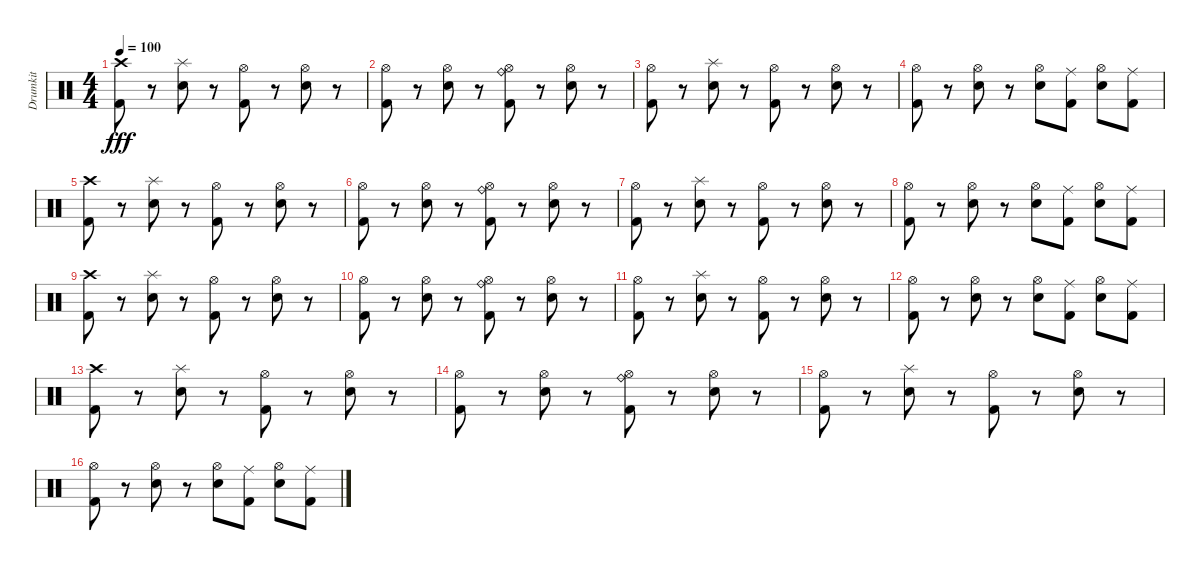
\track ("Drumkit" "Drumkit") {instrument percussion}
\staff {score}
\articulation defaults
\ts (4 4)
\tempo 100
\clef neutral
\ks c
("Kick (hit) 2" "Crash high (hit)").8{dy fff} r.8 ("Snare (hit) 2" "Splash (hit)").8 r.8 ("Kick (hit) 2" "Hi-Hat (open)").8 r.8 ("Snare (hit) 2" "Hi-Hat (open)").8 r.8 |
("Kick (hit) 2" "Hi-Hat (open)").8 r.8 ("Snare (hit) 2" "Hi-Hat (open)").8 r.8 ("Kick (hit) 2" "Hi-Hat (open)" "Ride (bell)").8 r.8 ("Hi-Hat (open)" "Snare (hit) 2").8 r.8 |
("Kick (hit) 2" "Hi-Hat (open)").8 r.8 ("Snare (hit) 2" "Splash (hit)").8 r.8 ("Kick (hit) 2" "Hi-Hat (open)").8 r.8 ("Snare (hit) 2" "Hi-Hat (open)").8 r.8 |
("Kick (hit) 2" "Hi-Hat (open)").8 r.8 ("Snare (hit) 2" "Hi-Hat (open)").8 r.8 ("Snare (hit) 2" "Hi-Hat (open)").8 ("Kick (hit) 2" "Ride (middle)").8 ("Snare (hit) 2" "Hi-Hat (open)").8 ("Kick (hit) 2" "Ride (middle)").8 |
("Kick (hit) 2" "Crash high (hit)").8 r.8 ("Snare (hit) 2" "Splash (hit)").8 r.8 ("Kick (hit) 2" "Hi-Hat (open)").8 r.8 ("Snare (hit) 2" "Hi-Hat (open)").8 r.8 |
("Kick (hit) 2" "Hi-Hat (open)").8 r.8 ("Snare (hit) 2" "Hi-Hat (open)").8 r.8 ("Kick (hit) 2" "Hi-Hat (open)" "Ride (bell)").8 r.8 ("Hi-Hat (open)" "Snare (hit) 2").8 r.8 |
("Kick (hit) 2" "Hi-Hat (open)").8 r.8 ("Snare (hit) 2" "Splash (hit)").8 r.8 ("Kick (hit) 2" "Hi-Hat (open)").8 r.8 ("Snare (hit) 2" "Hi-Hat (open)").8 r.8 |
("Kick (hit) 2" "Hi-Hat (open)").8 r.8 ("Snare (hit) 2" "Hi-Hat (open)").8 r.8 ("Snare (hit) 2" "Hi-Hat (open)").8 ("Kick (hit) 2" "Ride (middle)").8 ("Snare (hit) 2" "Hi-Hat (open)").8 ("Kick (hit) 2" "Ride (middle)").8 |
("Kick (hit) 2" "Crash high (hit)").8 r.8 ("Snare (hit) 2" "Splash (hit)").8 r.8 ("Kick (hit) 2" "Hi-Hat (open)").8 r.8 ("Snare (hit) 2" "Hi-Hat (open)").8 r.8 |
("Kick (hit) 2" "Hi-Hat (open)").8 r.8 ("Snare (hit) 2" "Hi-Hat (open)").8 r.8 ("Kick (hit) 2" "Hi-Hat (open)" "Ride (bell)").8 r.8 ("Hi-Hat (open)" "Snare (hit) 2").8 r.8 |
("Kick (hit) 2" "Hi-Hat (open)").8 r.8 ("Snare (hit) 2" "Splash (hit)").8 r.8 ("Kick (hit) 2" "Hi-Hat (open)").8 r.8 ("Snare (hit) 2" "Hi-Hat (open)").8 r.8 |
("Kick (hit) 2" "Hi-Hat (open)").8 r.8 ("Snare (hit) 2" "Hi-Hat (open)").8 r.8 ("Snare (hit) 2" "Hi-Hat (open)").8 ("Kick (hit) 2" "Ride (middle)").8 ("Snare (hit) 2" "Hi-Hat (open)").8 ("Kick (hit) 2" "Ride (middle)").8 |
("Kick (hit) 2" "Crash high (hit)").8 r.8 ("Snare (hit) 2" "Splash (hit)").8 r.8 ("Kick (hit) 2" "Hi-Hat (open)").8 r.8 ("Snare (hit) 2" "Hi-Hat (open)").8 r.8 |
("Kick (hit) 2" "Hi-Hat (open)").8 r.8 ("Snare (hit) 2" "Hi-Hat (open)").8 r.8 ("Kick (hit) 2" "Hi-Hat (open)" "Ride (bell)").8 r.8 ("Hi-Hat (open)" "Snare (hit) 2").8 r.8 |
("Kick (hit) 2" "Hi-Hat (open)").8 r.8 ("Snare (hit) 2" "Splash (hit)").8 r.8 ("Kick (hit) 2" "Hi-Hat (open)").8 r.8 ("Snare (hit) 2" "Hi-Hat (open)").8 r.8 |
("Kick (hit) 2" "Hi-Hat (open)").8 r.8 ("Snare (hit) 2" "Hi-Hat (open)").8 r.8 ("Snare (hit) 2" "Hi-Hat (open)").8 ("Kick (hit) 2" "Ride (middle)").8 ("Snare (hit) 2" "Hi-Hat (open)").8 ("Kick (hit) 2" "Ride (middle)").8
